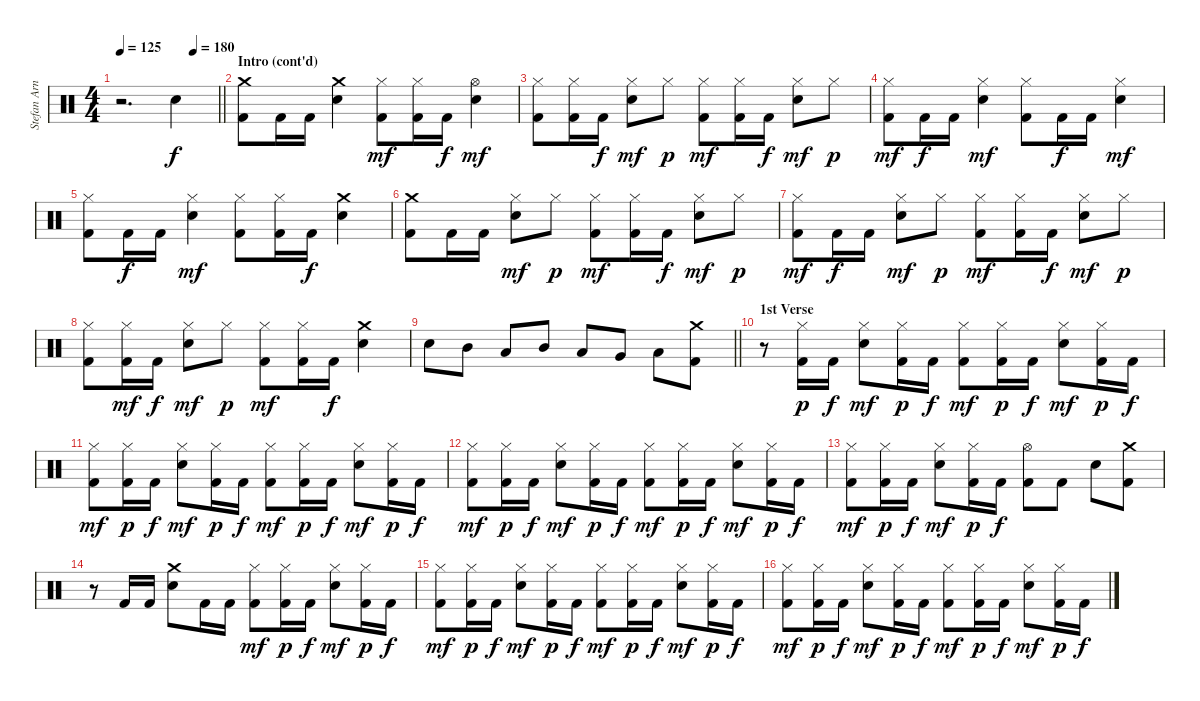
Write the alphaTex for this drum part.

\track ("Stefan Arnold" "Stefan Arn") {instrument percussion}
\staff {score}
\articulation defaults
\ts (4 4)
\tempo 125
\tempo (180 0.75)
\clef neutral
\barLineRight lightlight
\ks c
r.2{d dy f} "Electric Snare (hit)".4 |
\section ("" "Intro (cont'd)")
("Crash medium (hit)" "Kick (hit) 2").8 "Kick (hit) 2".16 "Kick (hit) 2".16 ("Crash medium (hit)" "Electric Snare (hit)").4 ("Hi-Hat (closed)" "Kick (hit) 2").8{dy mf} ("Hi-Hat (closed)" "Kick (hit) 2").16 "Kick (hit) 2".16{dy f} ("Hi-Hat (open)" "Electric Snare (hit)").4{dy mf} |
("Hi-Hat (closed)" "Kick (hit) 2").8 ("Hi-Hat (closed)" "Kick (hit) 2").16 "Kick (hit) 2".16{dy f} ("Hi-Hat (closed)" "Electric Snare (hit)").8{dy mf} "Hi-Hat (closed)".8{dy p} ("Hi-Hat (closed)" "Kick (hit) 2").8{dy mf} ("Hi-Hat (closed)" "Kick (hit) 2").16 "Kick (hit) 2".16{dy f} ("Hi-Hat (closed)" "Electric Snare (hit)").8{dy mf} "Hi-Hat (closed)".8{dy p} |
("Hi-Hat (closed)" "Kick (hit) 2").8{dy mf} "Kick (hit) 2".16{dy f} "Kick (hit) 2".16 ("Hi-Hat (closed)" "Electric Snare (hit)").4{dy mf} ("Hi-Hat (closed)" "Kick (hit) 2").8 "Kick (hit) 2".16{dy f} "Kick (hit) 2".16 ("Hi-Hat (closed)" "Electric Snare (hit)").4{dy mf} |
("Hi-Hat (closed)" "Kick (hit) 2").8 "Kick (hit) 2".16{dy f} "Kick (hit) 2".16 ("Hi-Hat (closed)" "Electric Snare (hit)").4{dy mf} ("Hi-Hat (closed)" "Kick (hit) 2").8 ("Hi-Hat (closed)" "Kick (hit) 2").16 "Kick (hit) 2".16{dy f} ("Crash medium (hit)" "Electric Snare (hit)").4 |
("Crash medium (hit)" "Kick (hit) 2").8 "Kick (hit) 2".16 "Kick (hit) 2".16 ("Hi-Hat (closed)" "Electric Snare (hit)").8{dy mf} "Hi-Hat (closed)".8{dy p} ("Hi-Hat (closed)" "Kick (hit) 2").8{dy mf} ("Hi-Hat (closed)" "Kick (hit) 2").16 "Kick (hit) 2".16{dy f} ("Hi-Hat (closed)" "Electric Snare (hit)").8{dy mf} "Hi-Hat (closed)".8{dy p} |
("Hi-Hat (closed)" "Kick (hit) 2").8{dy mf} "Kick (hit) 2".16{dy f} "Kick (hit) 2".16 ("Hi-Hat (closed)" "Electric Snare (hit)").8{dy mf} "Hi-Hat (closed)".8{dy p} ("Hi-Hat (closed)" "Kick (hit) 2").8{dy mf} ("Hi-Hat (closed)" "Kick (hit) 2").16 "Kick (hit) 2".16{dy f} ("Hi-Hat (closed)" "Electric Snare (hit)").8{dy mf} "Hi-Hat (closed)".8{dy p} |
("Hi-Hat (closed)" "Kick (hit) 2").8 ("Hi-Hat (closed)" "Kick (hit) 2").16{dy mf} "Kick (hit) 2".16{dy f} ("Hi-Hat (closed)" "Electric Snare (hit)").8{dy mf} "Hi-Hat (closed)".8{dy p} ("Hi-Hat (closed)" "Kick (hit) 2").8{dy mf} ("Hi-Hat (closed)" "Kick (hit) 2").16 "Kick (hit) 2".16{dy f} ("Crash medium (hit)" "Electric Snare (hit)").4 |
\barLineRight lightlight "Electric Snare (hit)".8 "Mid Tom (hit)".8 "Low Tom (hit)".8 "Mid Tom (hit)".8 "Low Tom (hit)".8 "Very Low Tom (hit)".8 "Low Floor Tom (hit)".8
("Crash medium (hit)" "Kick (hit) 2").8 |
\section ("" "1st Verse")
r.8 ("Hi-Hat (closed)" "Kick (hit) 2").16{dy p} "Kick (hit) 2".16{dy f} ("Hi-Hat (closed)" "Electric Snare (hit)").8{dy mf} ("Hi-Hat (closed)" "Kick (hit) 2").16{dy p} "Kick (hit) 2".16{dy f} ("Hi-Hat (closed)" "Kick (hit) 2").8{dy mf} ("Hi-Hat (closed)" "Kick (hit) 2").16{dy p} "Kick (hit) 2".16{dy f} ("Hi-Hat (closed)" "Electric Snare (hit)").8{dy mf} ("Hi-Hat (closed)" "Kick (hit) 2").16{dy p} "Kick (hit) 2".16{dy f} |
("Hi-Hat (closed)" "Kick (hit) 2").8{dy mf} ("Hi-Hat (closed)" "Kick (hit) 2").16{dy p} "Kick (hit) 2".16{dy f} ("Hi-Hat (closed)" "Electric Snare (hit)").8{dy mf} ("Hi-Hat (closed)" "Kick (hit) 2").16{dy p} "Kick (hit) 2".16{dy f} ("Hi-Hat (closed)" "Kick (hit) 2").8{dy mf} ("Hi-Hat (closed)" "Kick (hit) 2").16{dy p} "Kick (hit) 2".16{dy f} ("Hi-Hat (closed)" "Electric Snare (hit)").8{dy mf} ("Hi-Hat (closed)" "Kick (hit) 2").16{dy p} "Kick (hit) 2".16{dy f} |
("Hi-Hat (closed)" "Kick (hit) 2").8{dy mf} ("Hi-Hat (closed)" "Kick (hit) 2").16{dy p} "Kick (hit) 2".16{dy f} ("Hi-Hat (closed)" "Electric Snare (hit)").8{dy mf} ("Hi-Hat (closed)" "Kick (hit) 2").16{dy p} "Kick (hit) 2".16{dy f} ("Hi-Hat (closed)" "Kick (hit) 2").8{dy mf} ("Hi-Hat (closed)" "Kick (hit) 2").16{dy p} "Kick (hit) 2".16{dy f} ("Hi-Hat (closed)" "Electric Snare (hit)").8{dy mf} ("Hi-Hat (closed)" "Kick (hit) 2").16{dy p} "Kick (hit) 2".16{dy f} |
("Hi-Hat (closed)" "Kick (hit) 2").8{dy mf} ("Hi-Hat (closed)" "Kick (hit) 2").16{dy p} "Kick (hit) 2".16{dy f} ("Hi-Hat (closed)" "Electric Snare (hit)").8{dy mf} ("Hi-Hat (closed)" "Kick (hit) 2").16{dy p} "Kick (hit) 2".16{dy f} ("Hi-Hat (open)" "Kick (hit) 2").8 "Kick (hit) 2".8 "Electric Snare (hit)".8 ("Crash medium (hit)" "Kick (hit) 2").8 |
r.8 "Kick (hit) 2".16 "Kick (hit) 2".16 ("Crash medium (hit)" "Electric Snare (hit)").8 "Kick (hit) 2".16 "Kick (hit) 2".16 ("Hi-Hat (closed)" "Kick (hit) 2").8{dy mf} ("Hi-Hat (closed)" "Kick (hit) 2").16{dy p} "Kick (hit) 2".16{dy f} ("Hi-Hat (closed)" "Electric Snare (hit)").8{dy mf} ("Hi-Hat (closed)" "Kick (hit) 2").16{dy p} "Kick (hit) 2".16{dy f} |
("Hi-Hat (closed)" "Kick (hit) 2").8{dy mf} ("Hi-Hat (closed)" "Kick (hit) 2").16{dy p} "Kick (hit) 2".16{dy f} ("Hi-Hat (closed)" "Electric Snare (hit)").8{dy mf} ("Hi-Hat (closed)" "Kick (hit) 2").16{dy p} "Kick (hit) 2".16{dy f} ("Hi-Hat (closed)" "Kick (hit) 2").8{dy mf} ("Hi-Hat (closed)" "Kick (hit) 2").16{dy p} "Kick (hit) 2".16{dy f} ("Hi-Hat (closed)" "Electric Snare (hit)").8{dy mf} ("Hi-Hat (closed)" "Kick (hit) 2").16{dy p} "Kick (hit) 2".16{dy f} |
("Hi-Hat (closed)" "Kick (hit) 2").8{dy mf} ("Hi-Hat (closed)" "Kick (hit) 2").16{dy p} "Kick (hit) 2".16{dy f} ("Hi-Hat (closed)" "Electric Snare (hit)").8{dy mf} ("Hi-Hat (closed)" "Kick (hit) 2").16{dy p} "Kick (hit) 2".16{dy f} ("Hi-Hat (closed)" "Kick (hit) 2").8{dy mf} ("Hi-Hat (closed)" "Kick (hit) 2").16{dy p} "Kick (hit) 2".16{dy f} ("Hi-Hat (closed)" "Electric Snare (hit)").8{dy mf} ("Hi-Hat (closed)" "Kick (hit) 2").16{dy p} "Kick (hit) 2".16{dy f}
